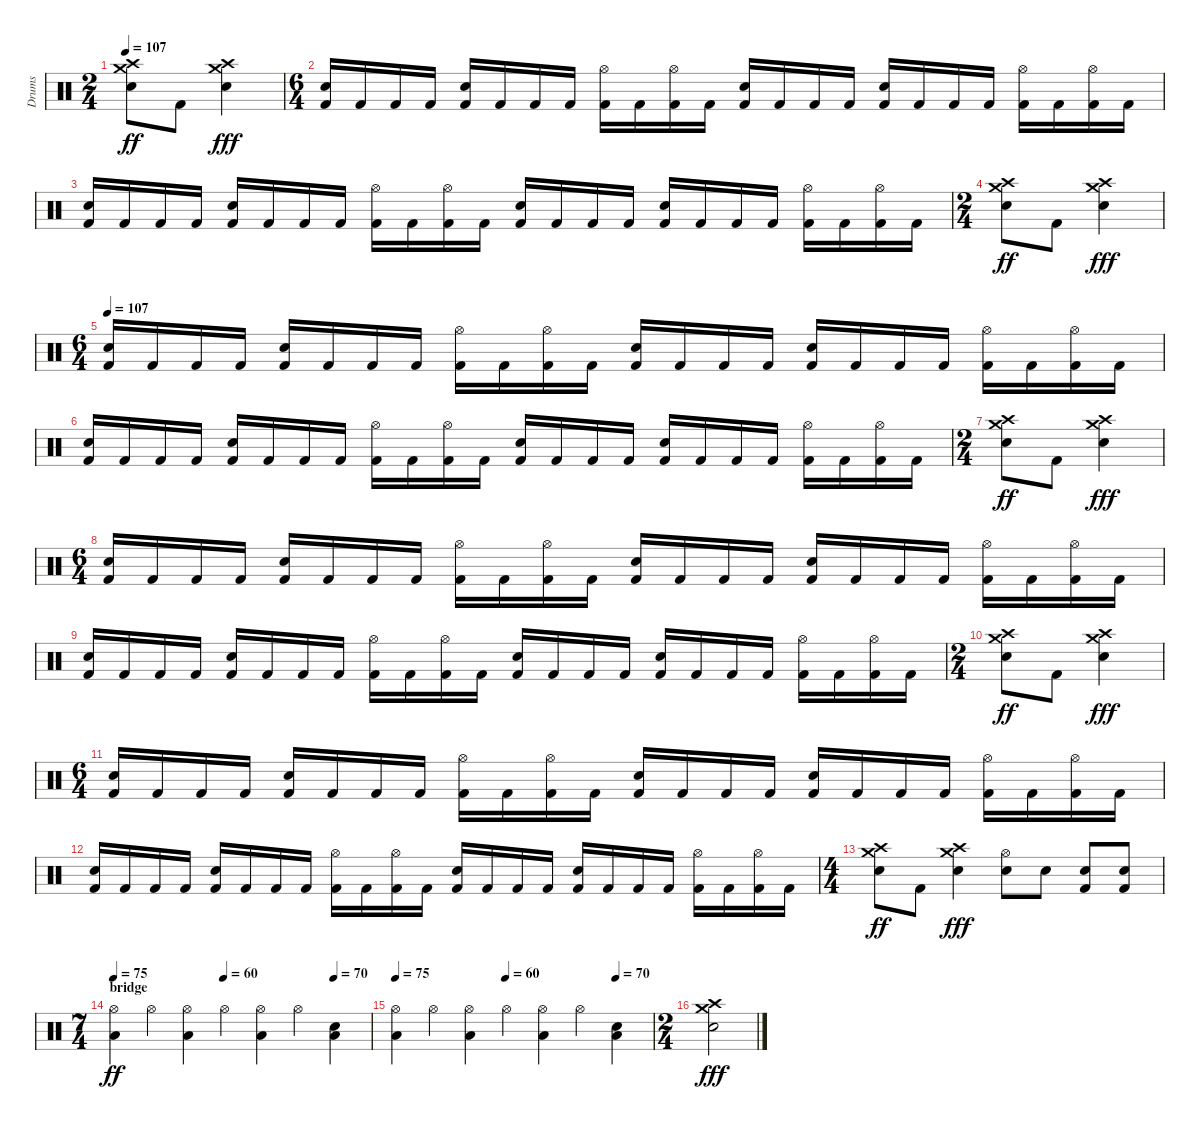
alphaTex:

\track ("Drums" "Drums") {instrument percussion}
\staff {score}
\articulation defaults
\ts (2 4)
\tempo 107
\clef neutral
\ks c
("Crash high (hit)" "Crash medium (hit)" "Electric Snare (hit)").8{dy ff} "Kick (hit) 2".8 ("Electric Snare (hit)" "Crash medium (hit)" "Crash high (hit)").4{dy fff} |
\ts (6 4)
("Electric Snare (hit)" "Kick (hit) 2").16 "Kick (hit) 2".16 "Kick (hit) 2".16 "Kick (hit) 2".16 ("Electric Snare (hit)" "Kick (hit) 2").16 "Kick (hit) 2".16 "Kick (hit) 2".16 "Kick (hit) 2".16 ("Hi-Hat (open)" "Kick (hit) 2").16 "Kick (hit) 2".16 ("Hi-Hat (open)" "Kick (hit) 2").16 "Kick (hit) 2".16 ("Electric Snare (hit)" "Kick (hit) 2").16 "Kick (hit) 2".16 "Kick (hit) 2".16 "Kick (hit) 2".16 ("Electric Snare (hit)" "Kick (hit) 2").16 "Kick (hit) 2".16 "Kick (hit) 2".16 "Kick (hit) 2".16 ("Hi-Hat (open)" "Kick (hit) 2").16 "Kick (hit) 2".16 ("Hi-Hat (open)" "Kick (hit) 2").16 "Kick (hit) 2".16 |
("Electric Snare (hit)" "Kick (hit) 2").16 "Kick (hit) 2".16 "Kick (hit) 2".16 "Kick (hit) 2".16 ("Electric Snare (hit)" "Kick (hit) 2").16 "Kick (hit) 2".16 "Kick (hit) 2".16 "Kick (hit) 2".16 ("Hi-Hat (open)" "Kick (hit) 2").16 "Kick (hit) 2".16 ("Hi-Hat (open)" "Kick (hit) 2").16 "Kick (hit) 2".16 ("Electric Snare (hit)" "Kick (hit) 2").16 "Kick (hit) 2".16 "Kick (hit) 2".16 "Kick (hit) 2".16 ("Electric Snare (hit)" "Kick (hit) 2").16 "Kick (hit) 2".16 "Kick (hit) 2".16 "Kick (hit) 2".16 ("Hi-Hat (open)" "Kick (hit) 2").16 "Kick (hit) 2".16 ("Hi-Hat (open)" "Kick (hit) 2").16 "Kick (hit) 2".16 |
\ts (2 4)
("Crash high (hit)" "Crash medium (hit)" "Electric Snare (hit)").8{dy ff} "Kick (hit) 2".8 ("Electric Snare (hit)" "Crash medium (hit)" "Crash high (hit)").4{dy fff} |
\ts (6 4)
\tempo 107
("Electric Snare (hit)" "Kick (hit) 2").16 "Kick (hit) 2".16 "Kick (hit) 2".16 "Kick (hit) 2".16 ("Electric Snare (hit)" "Kick (hit) 2").16 "Kick (hit) 2".16 "Kick (hit) 2".16 "Kick (hit) 2".16 ("Hi-Hat (open)" "Kick (hit) 2").16 "Kick (hit) 2".16 ("Hi-Hat (open)" "Kick (hit) 2").16 "Kick (hit) 2".16 ("Electric Snare (hit)" "Kick (hit) 2").16 "Kick (hit) 2".16 "Kick (hit) 2".16 "Kick (hit) 2".16 ("Electric Snare (hit)" "Kick (hit) 2").16 "Kick (hit) 2".16 "Kick (hit) 2".16 "Kick (hit) 2".16 ("Hi-Hat (open)" "Kick (hit) 2").16 "Kick (hit) 2".16 ("Hi-Hat (open)" "Kick (hit) 2").16 "Kick (hit) 2".16 |
("Electric Snare (hit)" "Kick (hit) 2").16 "Kick (hit) 2".16 "Kick (hit) 2".16 "Kick (hit) 2".16 ("Electric Snare (hit)" "Kick (hit) 2").16 "Kick (hit) 2".16 "Kick (hit) 2".16 "Kick (hit) 2".16 ("Hi-Hat (open)" "Kick (hit) 2").16 "Kick (hit) 2".16 ("Hi-Hat (open)" "Kick (hit) 2").16 "Kick (hit) 2".16 ("Electric Snare (hit)" "Kick (hit) 2").16 "Kick (hit) 2".16 "Kick (hit) 2".16 "Kick (hit) 2".16 ("Electric Snare (hit)" "Kick (hit) 2").16 "Kick (hit) 2".16 "Kick (hit) 2".16 "Kick (hit) 2".16 ("Hi-Hat (open)" "Kick (hit) 2").16 "Kick (hit) 2".16 ("Hi-Hat (open)" "Kick (hit) 2").16 "Kick (hit) 2".16 |
\ts (2 4)
("Crash high (hit)" "Crash medium (hit)" "Electric Snare (hit)").8{dy ff} "Kick (hit) 2".8 ("Electric Snare (hit)" "Crash medium (hit)" "Crash high (hit)").4{dy fff} |
\ts (6 4)
("Electric Snare (hit)" "Kick (hit) 2").16 "Kick (hit) 2".16 "Kick (hit) 2".16 "Kick (hit) 2".16 ("Electric Snare (hit)" "Kick (hit) 2").16 "Kick (hit) 2".16 "Kick (hit) 2".16 "Kick (hit) 2".16 ("Hi-Hat (open)" "Kick (hit) 2").16 "Kick (hit) 2".16 ("Hi-Hat (open)" "Kick (hit) 2").16 "Kick (hit) 2".16 ("Electric Snare (hit)" "Kick (hit) 2").16 "Kick (hit) 2".16 "Kick (hit) 2".16 "Kick (hit) 2".16 ("Electric Snare (hit)" "Kick (hit) 2").16 "Kick (hit) 2".16 "Kick (hit) 2".16 "Kick (hit) 2".16 ("Hi-Hat (open)" "Kick (hit) 2").16 "Kick (hit) 2".16 ("Hi-Hat (open)" "Kick (hit) 2").16 "Kick (hit) 2".16 |
("Electric Snare (hit)" "Kick (hit) 2").16 "Kick (hit) 2".16 "Kick (hit) 2".16 "Kick (hit) 2".16 ("Electric Snare (hit)" "Kick (hit) 2").16 "Kick (hit) 2".16 "Kick (hit) 2".16 "Kick (hit) 2".16 ("Hi-Hat (open)" "Kick (hit) 2").16 "Kick (hit) 2".16 ("Hi-Hat (open)" "Kick (hit) 2").16 "Kick (hit) 2".16 ("Electric Snare (hit)" "Kick (hit) 2").16 "Kick (hit) 2".16 "Kick (hit) 2".16 "Kick (hit) 2".16 ("Electric Snare (hit)" "Kick (hit) 2").16 "Kick (hit) 2".16 "Kick (hit) 2".16 "Kick (hit) 2".16 ("Hi-Hat (open)" "Kick (hit) 2").16 "Kick (hit) 2".16 ("Hi-Hat (open)" "Kick (hit) 2").16 "Kick (hit) 2".16 |
\ts (2 4)
("Crash high (hit)" "Crash medium (hit)" "Electric Snare (hit)").8{dy ff} "Kick (hit) 2".8 ("Electric Snare (hit)" "Crash medium (hit)" "Crash high (hit)").4{dy fff} |
\ts (6 4)
("Electric Snare (hit)" "Kick (hit) 2").16 "Kick (hit) 2".16 "Kick (hit) 2".16 "Kick (hit) 2".16 ("Electric Snare (hit)" "Kick (hit) 2").16 "Kick (hit) 2".16 "Kick (hit) 2".16 "Kick (hit) 2".16 ("Hi-Hat (open)" "Kick (hit) 2").16 "Kick (hit) 2".16 ("Hi-Hat (open)" "Kick (hit) 2").16 "Kick (hit) 2".16 ("Electric Snare (hit)" "Kick (hit) 2").16 "Kick (hit) 2".16 "Kick (hit) 2".16 "Kick (hit) 2".16 ("Electric Snare (hit)" "Kick (hit) 2").16 "Kick (hit) 2".16 "Kick (hit) 2".16 "Kick (hit) 2".16 ("Hi-Hat (open)" "Kick (hit) 2").16 "Kick (hit) 2".16 ("Hi-Hat (open)" "Kick (hit) 2").16 "Kick (hit) 2".16 |
("Electric Snare (hit)" "Kick (hit) 2").16 "Kick (hit) 2".16 "Kick (hit) 2".16 "Kick (hit) 2".16 ("Electric Snare (hit)" "Kick (hit) 2").16 "Kick (hit) 2".16 "Kick (hit) 2".16 "Kick (hit) 2".16 ("Hi-Hat (open)" "Kick (hit) 2").16 "Kick (hit) 2".16 ("Hi-Hat (open)" "Kick (hit) 2").16 "Kick (hit) 2".16 ("Electric Snare (hit)" "Kick (hit) 2").16 "Kick (hit) 2".16 "Kick (hit) 2".16 "Kick (hit) 2".16 ("Electric Snare (hit)" "Kick (hit) 2").16 "Kick (hit) 2".16 "Kick (hit) 2".16 "Kick (hit) 2".16 ("Hi-Hat (open)" "Kick (hit) 2").16 "Kick (hit) 2".16 ("Hi-Hat (open)" "Kick (hit) 2").16 "Kick (hit) 2".16 |
\ts (4 4)
("Crash high (hit)" "Crash medium (hit)" "Electric Snare (hit)").8{dy ff} "Kick (hit) 2".8 ("Electric Snare (hit)" "Crash medium (hit)" "Crash high (hit)").4{dy fff} ("Hi-Hat (open)" "Electric Snare (hit)").8 "Electric Snare (hit)".8 ("Kick (hit) 2" "Electric Snare (hit)").8 ("Kick (hit) 2" "Electric Snare (hit)").8 |
\ts (7 4)
\section ("" "bridge")
\tempo 75
\tempo (60 0.42857142857142855)
\tempo (70 0.8571428571428571)
("Hi-Hat (open)" "Low Tom (hit)").4{dy ff} "Hi-Hat (open)".4 ("Low Tom (hit)" "Hi-Hat (open)").4 "Hi-Hat (open)".4 ("Hi-Hat (open)" "Low Tom (hit)").4 "Hi-Hat (open)".4 ("Electric Snare (hit)" "Low Tom (hit)").4 |
\tempo 75
\tempo (60 0.42857142857142855)
\tempo (70 0.8571428571428571)
("Hi-Hat (open)" "Low Tom (hit)").4 "Hi-Hat (open)".4 ("Low Tom (hit)" "Hi-Hat (open)").4 "Hi-Hat (open)".4 ("Hi-Hat (open)" "Low Tom (hit)").4 "Hi-Hat (open)".4 ("Electric Snare (hit)" "Low Tom (hit)").4 |
\ts (2 4)
("Crash high (hit)" "Crash medium (hit)" "Electric Snare (hit)").2{dy fff}
